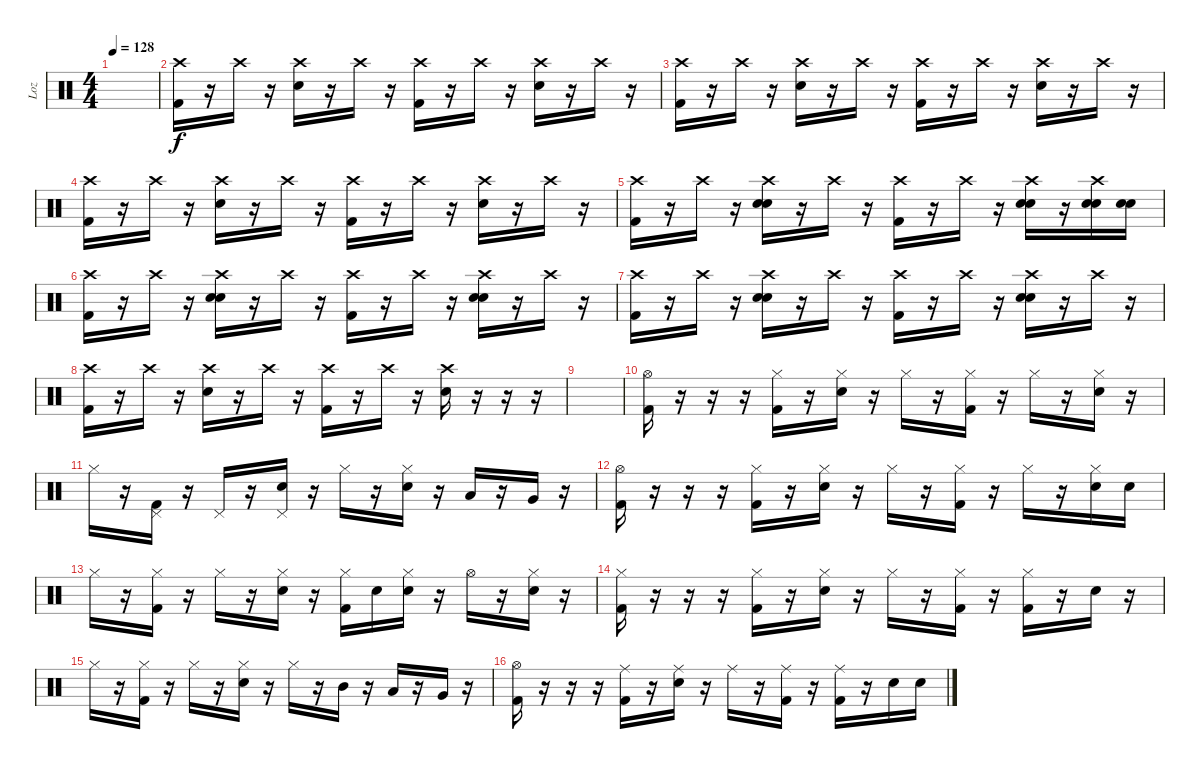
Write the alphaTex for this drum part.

\track ("Loz" "Loz") {instrument percussion}
\staff {score}
\articulation defaults
\ts (4 4)
\tempo 128
\clef neutral
\ks c
|
("Crash high (hit)" "Kick (hit) 2").16 r.16 "Crash high (hit)".16 r.16 ("Crash high (hit)" "Snare (hit) 2").16 r.16 "Crash high (hit)".16 r.16 ("Crash high (hit)" "Kick (hit) 2").16 r.16 "Crash high (hit)".16 r.16 ("Crash high (hit)" "Snare (hit) 2").16 r.16 "Crash high (hit)".16 r.16 |
("Crash high (hit)" "Kick (hit) 2").16 r.16 "Crash high (hit)".16 r.16 ("Crash high (hit)" "Snare (hit) 2").16 r.16 "Crash high (hit)".16 r.16 ("Crash high (hit)" "Kick (hit) 2").16 r.16 "Crash high (hit)".16 r.16 ("Crash high (hit)" "Snare (hit) 2").16 r.16 "Crash high (hit)".16 r.16 |
("Crash high (hit)" "Kick (hit) 2").16 r.16 "Crash high (hit)".16 r.16 ("Crash high (hit)" "Snare (hit) 2").16 r.16 "Crash high (hit)".16 r.16 ("Crash high (hit)" "Kick (hit) 2").16 r.16 "Crash high (hit)".16 r.16 ("Crash high (hit)" "Snare (hit) 2").16 r.16 "Crash high (hit)".16 r.16 |
("Crash high (hit)" "Kick (hit) 2").16 r.16 "Crash high (hit)".16 r.16 ("Crash high (hit)" "Electric Snare (hit)" "Snare (hit) 2").16 r.16 "Crash high (hit)".16 r.16 ("Crash high (hit)" "Kick (hit) 2").16 r.16 "Crash high (hit)".16 r.16 ("Crash high (hit)" "Electric Snare (hit)" "Snare (hit) 2").16 r.16 ("Crash high (hit)" "Electric Snare (hit)" "Snare (hit) 2").16 ("Electric Snare (hit)" "Snare (hit) 2").16 |
("Crash high (hit)" "Kick (hit) 2").16 r.16 "Crash high (hit)".16 r.16 ("Crash high (hit)" "Electric Snare (hit)" "Snare (hit) 2").16 r.16 "Crash high (hit)".16 r.16 ("Crash high (hit)" "Kick (hit) 2").16 r.16 "Crash high (hit)".16 r.16 ("Crash high (hit)" "Electric Snare (hit)" "Snare (hit) 2").16 r.16 "Crash high (hit)".16 r.16 |
("Crash high (hit)" "Kick (hit) 2").16 r.16 "Crash high (hit)".16 r.16 ("Crash high (hit)" "Electric Snare (hit)" "Snare (hit) 2").16 r.16 "Crash high (hit)".16 r.16 ("Crash high (hit)" "Kick (hit) 2").16 r.16 "Crash high (hit)".16 r.16 ("Crash high (hit)" "Electric Snare (hit)" "Snare (hit) 2").16 r.16 "Crash high (hit)".16 r.16 |
("Crash high (hit)" "Kick (hit) 2").16 r.16 "Crash high (hit)".16 r.16 ("Crash high (hit)" "Electric Snare (hit)").16 r.16 "Crash high (hit)".16 r.16 ("Crash high (hit)" "Kick (hit) 2").16 r.16 "Crash high (hit)".16 r.16 ("Crash high (hit)" "Electric Snare (hit)").16 r.16 r.16 r.16 |
|
("Hi-Hat (open)" "Kick (hit) 2").16{volume 13} r.16 r.16 r.16 ("Hi-Hat (closed)" "Kick (hit) 2").16 r.16 ("Hi-Hat (closed)" "Electric Snare (hit)").16 r.16 "Hi-Hat (closed)".16 r.16 ("Hi-Hat (closed)" "Kick (hit) 2").16 r.16 "Hi-Hat (closed)".16 r.16 ("Hi-Hat (closed)" "Electric Snare (hit)").16 r.16 |
"Hi-Hat (closed)".16 r.16 ("Pedal Hi-Hat (hit)" "Kick (hit) 2").16 r.16 "Pedal Hi-Hat (hit)".16 r.16 ("Pedal Hi-Hat (hit)" "Snare (hit) 2").16 r.16 "Hi-Hat (closed)".16 r.16 ("Hi-Hat (closed)" "Snare (hit) 2").16 r.16 "Low Tom (hit)".16 r.16 "Very Low Tom (hit)".16 r.16 |
("Hi-Hat (open)" "Kick (hit) 2").16 r.16 r.16 r.16 ("Hi-Hat (closed)" "Kick (hit) 2").16 r.16 ("Hi-Hat (closed)" "Snare (hit) 2").16 r.16 "Hi-Hat (closed)".16 r.16 ("Hi-Hat (closed)" "Kick (hit) 2").16 r.16 "Hi-Hat (closed)".16 r.16 ("Hi-Hat (closed)" "Snare (hit) 2").16 "Snare (hit) 2".16 |
"Hi-Hat (closed)".16 r.16 ("Hi-Hat (closed)" "Kick (hit) 2").16 r.16 "Hi-Hat (closed)".16 r.16 ("Hi-Hat (closed)" "Snare (hit) 2").16 r.16 ("Hi-Hat (closed)" "Kick (hit) 2").16 "Snare (hit) 2".16 ("Hi-Hat (closed)" "Snare (hit) 2").16 r.16 "Hi-Hat (open)".16 r.16 ("Hi-Hat (closed)" "Snare (hit) 2").16 r.16 |
("Hi-Hat (closed)" "Kick (hit) 2").16 r.16 r.16 r.16 ("Hi-Hat (closed)" "Kick (hit) 2").16 r.16 ("Hi-Hat (closed)" "Snare (hit) 2").16 r.16 "Hi-Hat (closed)".16 r.16 ("Hi-Hat (closed)" "Kick (hit) 2").16 r.16 ("Hi-Hat (closed)" "Kick (hit) 2").16 r.16 "Snare (hit) 2".16 r.16 |
"Hi-Hat (closed)".16 r.16 ("Hi-Hat (closed)" "Kick (hit) 2").16 r.16 "Hi-Hat (closed)".16 r.16 ("Hi-Hat (closed)" "Snare (hit) 2").16 r.16 "Hi-Hat (closed)".16 r.16 "Mid Tom (hit)".16 r.16 "Low Tom (hit)".16 r.16 "Very Low Tom (hit)".16 r.16 |
("Hi-Hat (open)" "Kick (hit) 2").16 r.16 r.16 r.16 ("Ride (middle)" "Kick (hit) 2").16 r.16 ("Ride (middle)" "Snare (hit) 2").16 r.16 "Ride (middle)".16 r.16 ("Ride (middle)" "Kick (hit) 2").16 r.16 ("Ride (middle)" "Kick (hit) 2").16 r.16 "Snare (hit) 2".16 "Snare (hit) 2".16
